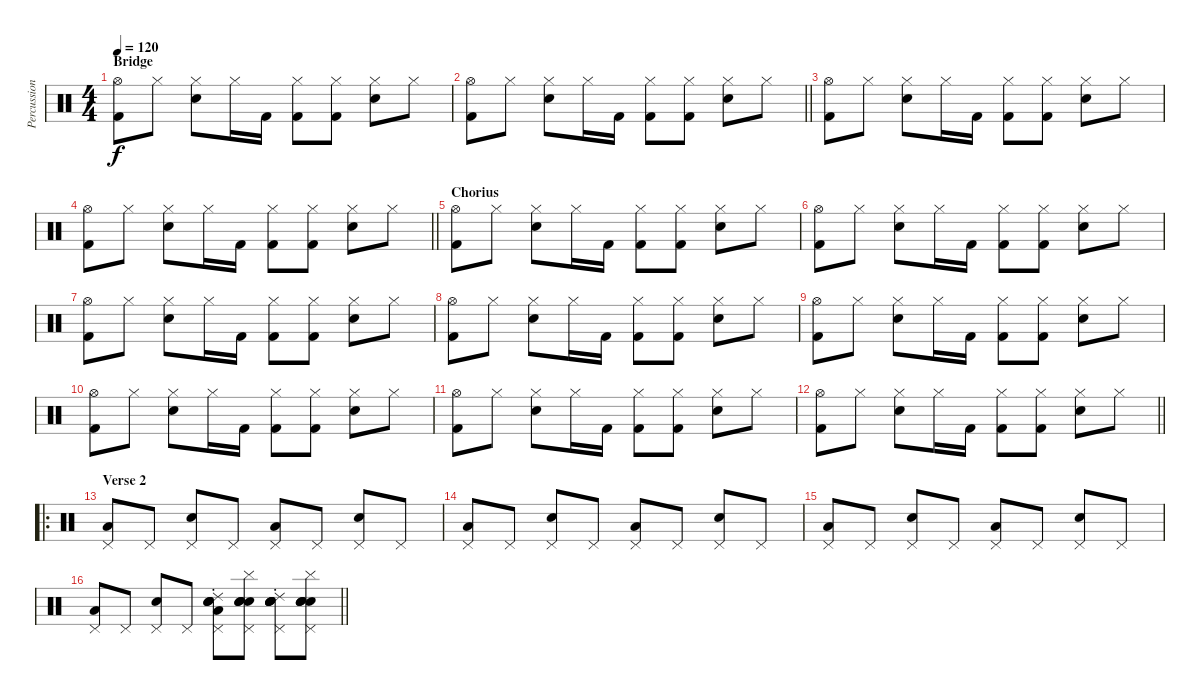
\track ("Percussion" "Percussion") {instrument percussion}
\staff {score}
\articulation defaults
\ts (4 4)
\section ("" "Bridge")
\tempo 120
\clef neutral
\ks c
("Hi-Hat (open)" "Kick (hit) 2").8{dy f} "Hi-Hat (closed)".8 ("Hi-Hat (closed)" "Snare (hit) 2").8 "Hi-Hat (closed)".16 "Kick (hit) 2".16 ("Hi-Hat (closed)" "Kick (hit) 2").8 ("Hi-Hat (closed)" "Kick (hit) 2").8 ("Hi-Hat (closed)" "Snare (hit) 2").8 "Hi-Hat (closed)".8 |
\barLineRight lightlight
("Hi-Hat (open)" "Kick (hit) 2").8 "Hi-Hat (closed)".8 ("Hi-Hat (closed)" "Snare (hit) 2").8 "Hi-Hat (closed)".16 "Kick (hit) 2".16 ("Hi-Hat (closed)" "Kick (hit) 2").8 ("Hi-Hat (closed)" "Kick (hit) 2").8 ("Hi-Hat (closed)" "Snare (hit) 2").8 "Hi-Hat (closed)".8 |
("Hi-Hat (open)" "Kick (hit) 2").8 "Hi-Hat (closed)".8 ("Hi-Hat (closed)" "Snare (hit) 2").8 "Hi-Hat (closed)".16 "Kick (hit) 2".16 ("Hi-Hat (closed)" "Kick (hit) 2").8 ("Hi-Hat (closed)" "Kick (hit) 2").8 ("Hi-Hat (closed)" "Snare (hit) 2").8 "Hi-Hat (closed)".8 |
\barLineRight lightlight
("Hi-Hat (open)" "Kick (hit) 2").8 "Hi-Hat (closed)".8 ("Hi-Hat (closed)" "Snare (hit) 2").8 "Hi-Hat (closed)".16 "Kick (hit) 2".16 ("Hi-Hat (closed)" "Kick (hit) 2").8 ("Hi-Hat (closed)" "Kick (hit) 2").8 ("Hi-Hat (closed)" "Snare (hit) 2").8 "Hi-Hat (closed)".8 |
\section ("" "Chorius")
("Hi-Hat (open)" "Kick (hit) 2").8 "Hi-Hat (closed)".8 ("Hi-Hat (closed)" "Snare (hit) 2").8 "Hi-Hat (closed)".16 "Kick (hit) 2".16 ("Hi-Hat (closed)" "Kick (hit) 2").8 ("Hi-Hat (closed)" "Kick (hit) 2").8 ("Hi-Hat (closed)" "Snare (hit) 2").8 "Hi-Hat (closed)".8 |
("Hi-Hat (open)" "Kick (hit) 2").8 "Hi-Hat (closed)".8 ("Hi-Hat (closed)" "Snare (hit) 2").8 "Hi-Hat (closed)".16 "Kick (hit) 2".16 ("Hi-Hat (closed)" "Kick (hit) 2").8 ("Hi-Hat (closed)" "Kick (hit) 2").8 ("Hi-Hat (closed)" "Snare (hit) 2").8 "Hi-Hat (closed)".8 |
("Hi-Hat (open)" "Kick (hit) 2").8 "Hi-Hat (closed)".8 ("Hi-Hat (closed)" "Snare (hit) 2").8 "Hi-Hat (closed)".16 "Kick (hit) 2".16 ("Hi-Hat (closed)" "Kick (hit) 2").8 ("Hi-Hat (closed)" "Kick (hit) 2").8 ("Hi-Hat (closed)" "Snare (hit) 2").8 "Hi-Hat (closed)".8 |
("Hi-Hat (open)" "Kick (hit) 2").8 "Hi-Hat (closed)".8 ("Hi-Hat (closed)" "Snare (hit) 2").8 "Hi-Hat (closed)".16 "Kick (hit) 2".16 ("Hi-Hat (closed)" "Kick (hit) 2").8 ("Hi-Hat (closed)" "Kick (hit) 2").8 ("Hi-Hat (closed)" "Snare (hit) 2").8 "Hi-Hat (closed)".8 |
("Hi-Hat (open)" "Kick (hit) 2").8 "Hi-Hat (closed)".8 ("Hi-Hat (closed)" "Snare (hit) 2").8 "Hi-Hat (closed)".16 "Kick (hit) 2".16 ("Hi-Hat (closed)" "Kick (hit) 2").8 ("Hi-Hat (closed)" "Kick (hit) 2").8 ("Hi-Hat (closed)" "Snare (hit) 2").8 "Hi-Hat (closed)".8 |
("Hi-Hat (open)" "Kick (hit) 2").8 "Hi-Hat (closed)".8 ("Hi-Hat (closed)" "Snare (hit) 2").8 "Hi-Hat (closed)".16 "Kick (hit) 2".16 ("Hi-Hat (closed)" "Kick (hit) 2").8 ("Hi-Hat (closed)" "Kick (hit) 2").8 ("Hi-Hat (closed)" "Snare (hit) 2").8 "Hi-Hat (closed)".8 |
("Hi-Hat (open)" "Kick (hit) 2").8 "Hi-Hat (closed)".8 ("Hi-Hat (closed)" "Snare (hit) 2").8 "Hi-Hat (closed)".16 "Kick (hit) 2".16 ("Hi-Hat (closed)" "Kick (hit) 2").8 ("Hi-Hat (closed)" "Kick (hit) 2").8 ("Hi-Hat (closed)" "Snare (hit) 2").8 "Hi-Hat (closed)".8 |
\barLineRight lightlight
("Hi-Hat (open)" "Kick (hit) 2").8 "Hi-Hat (closed)".8 ("Hi-Hat (closed)" "Snare (hit) 2").8 "Hi-Hat (closed)".16 "Kick (hit) 2".16 ("Hi-Hat (closed)" "Kick (hit) 2").8 ("Hi-Hat (closed)" "Kick (hit) 2").8 ("Hi-Hat (closed)" "Snare (hit) 2").8 "Hi-Hat (closed)".8 |
\ro
\section ("" "Verse 2")
("Pedal Hi-Hat (hit)" "Low Floor Tom (hit)").8 "Pedal Hi-Hat (hit)".8 ("Pedal Hi-Hat (hit)" "Electric Snare (hit)").8 "Pedal Hi-Hat (hit)".8 ("Pedal Hi-Hat (hit)" "Low Floor Tom (hit)").8 "Pedal Hi-Hat (hit)".8 ("Pedal Hi-Hat (hit)" "Electric Snare (hit)").8 "Pedal Hi-Hat (hit)".8 |
("Pedal Hi-Hat (hit)" "Low Floor Tom (hit)").8 "Pedal Hi-Hat (hit)".8 ("Pedal Hi-Hat (hit)" "Electric Snare (hit)").8 "Pedal Hi-Hat (hit)".8 ("Pedal Hi-Hat (hit)" "Low Floor Tom (hit)").8 "Pedal Hi-Hat (hit)".8 ("Pedal Hi-Hat (hit)" "Electric Snare (hit)").8 "Pedal Hi-Hat (hit)".8 |
("Pedal Hi-Hat (hit)" "Low Floor Tom (hit)").8 "Pedal Hi-Hat (hit)".8 ("Pedal Hi-Hat (hit)" "Electric Snare (hit)").8 "Pedal Hi-Hat (hit)".8 ("Pedal Hi-Hat (hit)" "Low Floor Tom (hit)").8 "Pedal Hi-Hat (hit)".8 ("Pedal Hi-Hat (hit)" "Electric Snare (hit)").8 "Pedal Hi-Hat (hit)".8 |
\barLineRight lightlight
("Pedal Hi-Hat (hit)" "Low Floor Tom (hit)").8 "Pedal Hi-Hat (hit)".8 ("Pedal Hi-Hat (hit)" "Electric Snare (hit)").8 "Pedal Hi-Hat (hit)".8 ("Ride (choke) 2" "Electric Snare (hit)" "Electric Snare (hit)" "Pedal Hi-Hat (hit)" "Electric Snare (hit)" "Low Floor Tom (hit)").8 ("Cymbal (hit)" "Electric Snare (hit)" "Electric Snare (hit)" "Pedal Hi-Hat (hit)" "Electric Snare (hit)" "Electric Snare (hit)").8 ("Ride (choke) 2" "Electric Snare (hit)" "Electric Snare (hit)" "Pedal Hi-Hat (hit)" "Electric Snare (hit)" "Electric Snare (hit)").8 ("Cymbal (hit)" "Electric Snare (hit)" "Electric Snare (hit)" "Pedal Hi-Hat (hit)" "Electric Snare (hit)" "Electric Snare (hit)").8
